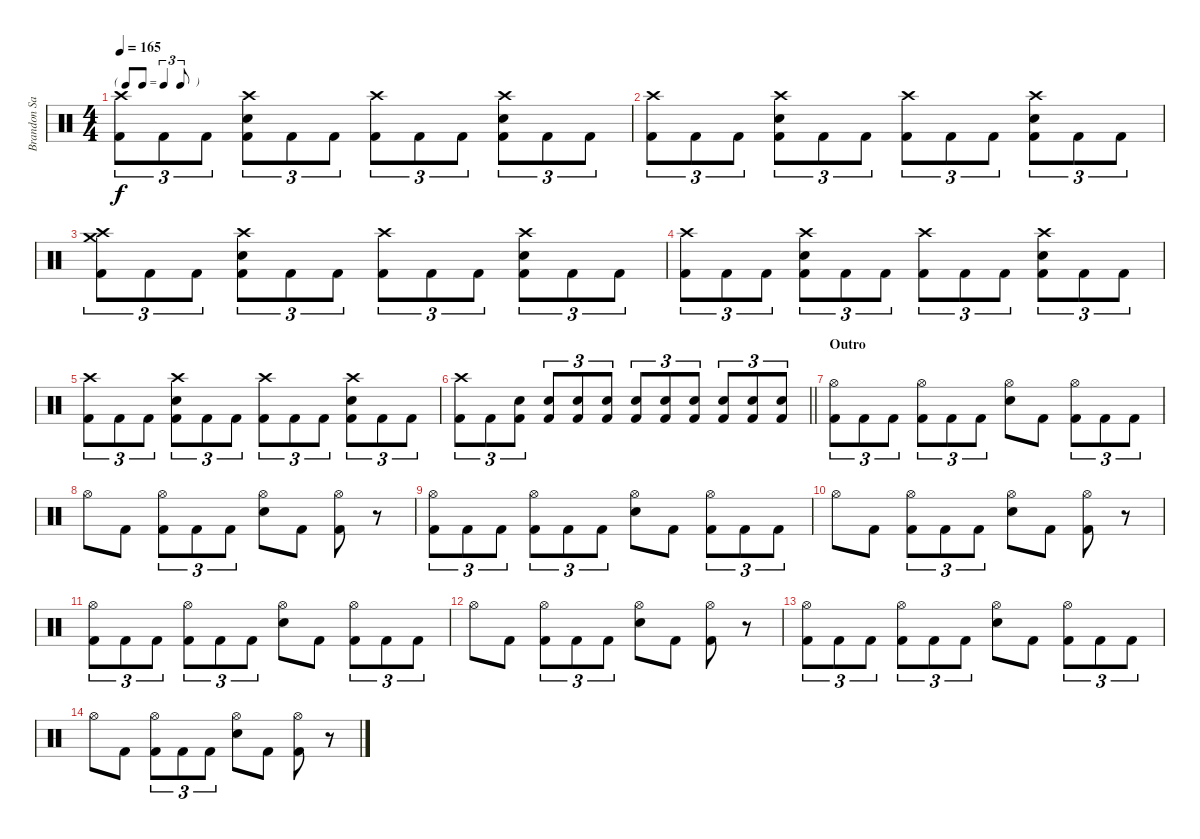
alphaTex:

\track ("Brandon Saller" "Brandon Sa") {instrument percussion}
\staff {score}
\articulation defaults
\ts (4 4)
\tf triplet8th
\tempo 165
\clef neutral
\ks c
("Crash high (hit)" "Kick (hit) 2").8{tu (3 2) dy f} "Kick (hit) 2".8{tu (3 2)} "Kick (hit) 2".8{tu (3 2)} ("Crash high (hit)" "Electric Snare (hit)" "Kick (hit) 2").8{tu (3 2)} "Kick (hit) 2".8{tu (3 2)} "Kick (hit) 2".8{tu (3 2)} ("Crash high (hit)" "Kick (hit) 2").8{tu (3 2)} "Kick (hit) 2".8{tu (3 2)} "Kick (hit) 2".8{tu (3 2)} ("Crash high (hit)" "Electric Snare (hit)" "Kick (hit) 2").8{tu (3 2)} "Kick (hit) 2".8{tu (3 2)} "Kick (hit) 2".8{tu (3 2)} |
("Crash high (hit)" "Kick (hit) 2").8{tu (3 2)} "Kick (hit) 2".8{tu (3 2)} "Kick (hit) 2".8{tu (3 2)} ("Crash high (hit)" "Electric Snare (hit)" "Kick (hit) 2").8{tu (3 2)} "Kick (hit) 2".8{tu (3 2)} "Kick (hit) 2".8{tu (3 2)} ("Crash high (hit)" "Kick (hit) 2").8{tu (3 2)} "Kick (hit) 2".8{tu (3 2)} "Kick (hit) 2".8{tu (3 2)} ("Crash high (hit)" "Electric Snare (hit)" "Kick (hit) 2").8{tu (3 2)} "Kick (hit) 2".8{tu (3 2)} "Kick (hit) 2".8{tu (3 2)} |
("Crash high (hit)" "Crash medium (hit)" "Kick (hit) 2").8{tu (3 2)} "Kick (hit) 2".8{tu (3 2)} "Kick (hit) 2".8{tu (3 2)} ("Crash high (hit)" "Electric Snare (hit)" "Kick (hit) 2").8{tu (3 2)} "Kick (hit) 2".8{tu (3 2)} "Kick (hit) 2".8{tu (3 2)} ("Crash high (hit)" "Kick (hit) 2").8{tu (3 2)} "Kick (hit) 2".8{tu (3 2)} "Kick (hit) 2".8{tu (3 2)} ("Crash high (hit)" "Electric Snare (hit)" "Kick (hit) 2").8{tu (3 2)} "Kick (hit) 2".8{tu (3 2)} "Kick (hit) 2".8{tu (3 2)} |
("Crash high (hit)" "Kick (hit) 2").8{tu (3 2)} "Kick (hit) 2".8{tu (3 2)} "Kick (hit) 2".8{tu (3 2)} ("Crash high (hit)" "Electric Snare (hit)" "Kick (hit) 2").8{tu (3 2)} "Kick (hit) 2".8{tu (3 2)} "Kick (hit) 2".8{tu (3 2)} ("Crash high (hit)" "Kick (hit) 2").8{tu (3 2)} "Kick (hit) 2".8{tu (3 2)} "Kick (hit) 2".8{tu (3 2)} ("Crash high (hit)" "Electric Snare (hit)" "Kick (hit) 2").8{tu (3 2)} "Kick (hit) 2".8{tu (3 2)} "Kick (hit) 2".8{tu (3 2)} |
("Crash high (hit)" "Kick (hit) 2").8{tu (3 2)} "Kick (hit) 2".8{tu (3 2)} "Kick (hit) 2".8{tu (3 2)} ("Crash high (hit)" "Electric Snare (hit)" "Kick (hit) 2").8{tu (3 2)} "Kick (hit) 2".8{tu (3 2)} "Kick (hit) 2".8{tu (3 2)} ("Crash high (hit)" "Kick (hit) 2").8{tu (3 2)} "Kick (hit) 2".8{tu (3 2)} "Kick (hit) 2".8{tu (3 2)} ("Crash high (hit)" "Electric Snare (hit)" "Kick (hit) 2").8{tu (3 2)} "Kick (hit) 2".8{tu (3 2)} "Kick (hit) 2".8{tu (3 2)} |
\barLineRight lightlight
("Crash high (hit)" "Kick (hit) 2").8{tu (3 2)} "Kick (hit) 2".8{tu (3 2)} ("Electric Snare (hit)" "Kick (hit) 2").8{tu (3 2)} ("Electric Snare (hit)" "Kick (hit) 2").8{tu (3 2)} ("Electric Snare (hit)" "Kick (hit) 2").8{tu (3 2)} ("Electric Snare (hit)" "Kick (hit) 2").8{tu (3 2)} ("Electric Snare (hit)" "Kick (hit) 2").8{tu (3 2)} ("Electric Snare (hit)" "Kick (hit) 2").8{tu (3 2)} ("Electric Snare (hit)" "Kick (hit) 2").8{tu (3 2)} ("Electric Snare (hit)" "Kick (hit) 2").8{tu (3 2)} ("Electric Snare (hit)" "Kick (hit) 2").8{tu (3 2)} ("Electric Snare (hit)" "Kick (hit) 2").8{tu (3 2)} |
\section ("" "Outro")
("Hi-Hat (open)" "Kick (hit) 2").8{tu (3 2)} "Kick (hit) 2".8{tu (3 2)} "Kick (hit) 2".8{tu (3 2)} ("Hi-Hat (open)" "Kick (hit) 2").8{tu (3 2)} "Kick (hit) 2".8{tu (3 2)} "Kick (hit) 2".8{tu (3 2)} ("Hi-Hat (open)" "Electric Snare (hit)").8 "Kick (hit) 2".8 ("Hi-Hat (open)" "Kick (hit) 2").8{tu (3 2)} "Kick (hit) 2".8{tu (3 2)} "Kick (hit) 2".8{tu (3 2)} |
"Hi-Hat (open)".8 "Kick (hit) 2".8 ("Hi-Hat (open)" "Kick (hit) 2").8{tu (3 2)} "Kick (hit) 2".8{tu (3 2)} "Kick (hit) 2".8{tu (3 2)} ("Hi-Hat (open)" "Electric Snare (hit)").8 "Kick (hit) 2".8 ("Hi-Hat (open)" "Kick (hit) 2").8 r.8 |
("Hi-Hat (open)" "Kick (hit) 2").8{tu (3 2)} "Kick (hit) 2".8{tu (3 2)} "Kick (hit) 2".8{tu (3 2)} ("Hi-Hat (open)" "Kick (hit) 2").8{tu (3 2)} "Kick (hit) 2".8{tu (3 2)} "Kick (hit) 2".8{tu (3 2)} ("Hi-Hat (open)" "Electric Snare (hit)").8 "Kick (hit) 2".8 ("Hi-Hat (open)" "Kick (hit) 2").8{tu (3 2)} "Kick (hit) 2".8{tu (3 2)} "Kick (hit) 2".8{tu (3 2)} |
"Hi-Hat (open)".8 "Kick (hit) 2".8 ("Hi-Hat (open)" "Kick (hit) 2").8{tu (3 2)} "Kick (hit) 2".8{tu (3 2)} "Kick (hit) 2".8{tu (3 2)} ("Hi-Hat (open)" "Electric Snare (hit)").8 "Kick (hit) 2".8 ("Hi-Hat (open)" "Kick (hit) 2").8 r.8 |
("Hi-Hat (open)" "Kick (hit) 2").8{tu (3 2)} "Kick (hit) 2".8{tu (3 2)} "Kick (hit) 2".8{tu (3 2)} ("Hi-Hat (open)" "Kick (hit) 2").8{tu (3 2)} "Kick (hit) 2".8{tu (3 2)} "Kick (hit) 2".8{tu (3 2)} ("Hi-Hat (open)" "Electric Snare (hit)").8 "Kick (hit) 2".8 ("Hi-Hat (open)" "Kick (hit) 2").8{tu (3 2)} "Kick (hit) 2".8{tu (3 2)} "Kick (hit) 2".8{tu (3 2)} |
"Hi-Hat (open)".8 "Kick (hit) 2".8 ("Hi-Hat (open)" "Kick (hit) 2").8{tu (3 2)} "Kick (hit) 2".8{tu (3 2)} "Kick (hit) 2".8{tu (3 2)} ("Hi-Hat (open)" "Electric Snare (hit)").8 "Kick (hit) 2".8 ("Hi-Hat (open)" "Kick (hit) 2").8 r.8 |
("Hi-Hat (open)" "Kick (hit) 2").8{tu (3 2)} "Kick (hit) 2".8{tu (3 2)} "Kick (hit) 2".8{tu (3 2)} ("Hi-Hat (open)" "Kick (hit) 2").8{tu (3 2)} "Kick (hit) 2".8{tu (3 2)} "Kick (hit) 2".8{tu (3 2)} ("Hi-Hat (open)" "Electric Snare (hit)").8 "Kick (hit) 2".8 ("Hi-Hat (open)" "Kick (hit) 2").8{tu (3 2)} "Kick (hit) 2".8{tu (3 2)} "Kick (hit) 2".8{tu (3 2)} |
"Hi-Hat (open)".8 "Kick (hit) 2".8 ("Hi-Hat (open)" "Kick (hit) 2").8{tu (3 2)} "Kick (hit) 2".8{tu (3 2)} "Kick (hit) 2".8{tu (3 2)} ("Hi-Hat (open)" "Electric Snare (hit)").8 "Kick (hit) 2".8 ("Hi-Hat (open)" "Kick (hit) 2").8 r.8
